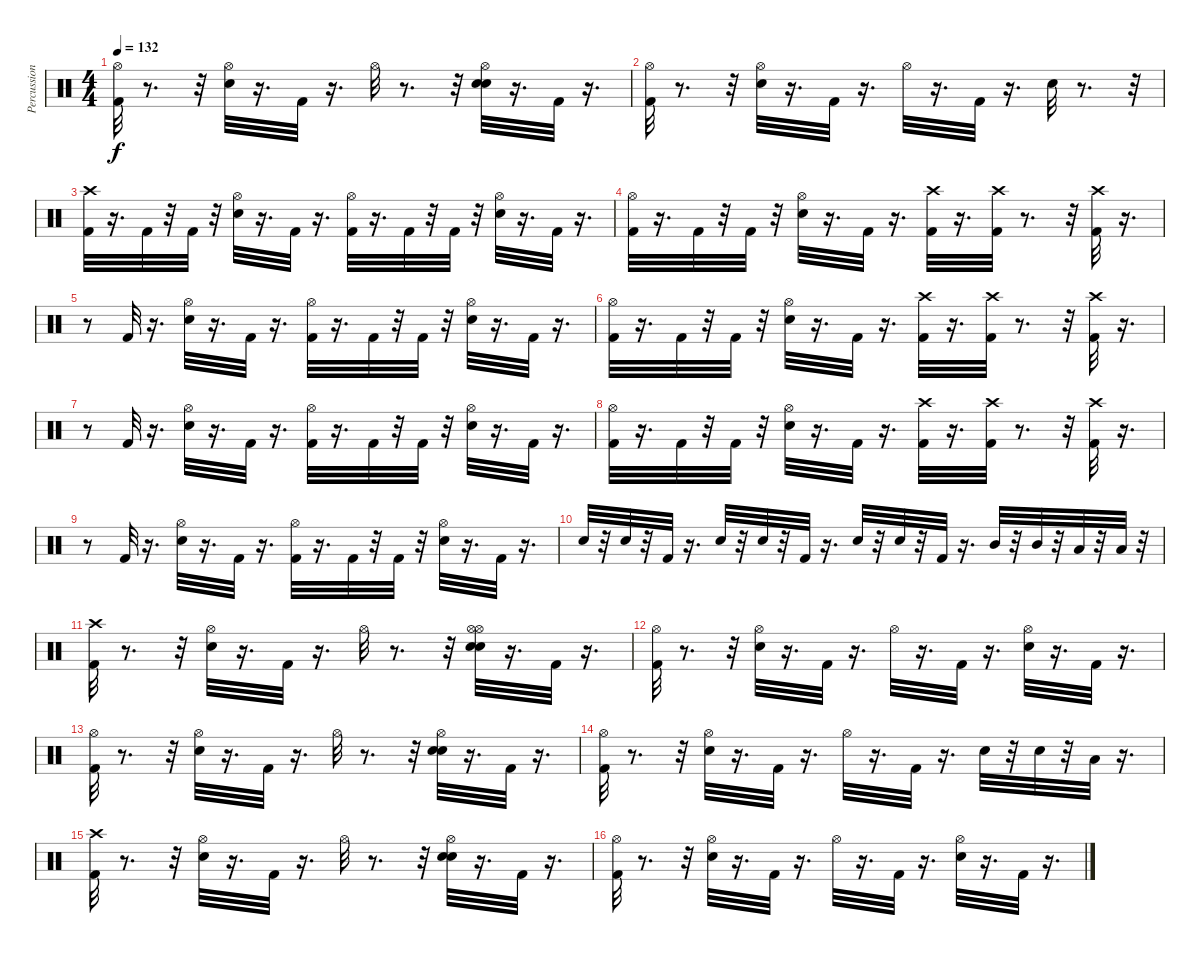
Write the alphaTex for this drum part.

\track ("Percussion" "Percussion") {instrument percussion}
\staff {score}
\articulation defaults
\ts (4 4)
\tempo 132
\clef neutral
\ks c
("Hi-Hat (open)" "Kick (hit) 2").32{dy f} r.8{d} r.32 ("Snare (hit) 2" "Hi-Hat (open)").32 r.16{d} "Kick (hit) 2".32 r.16{d} "Hi-Hat (open)".32 r.8{d} r.32 ("Snare (hit) 2" "Hi-Hat (open)" "Snare (hit) 2").32 r.16{d} "Kick (hit) 2".32 r.16{d} |
("Hi-Hat (open)" "Kick (hit) 2").32 r.8{d} r.32 ("Snare (hit) 2" "Hi-Hat (open)").32 r.16{d} "Kick (hit) 2".32 r.16{d} "Hi-Hat (open)".32 r.16{d} "Kick (hit) 2".32 r.16{d} "Snare (hit) 2".32 r.8{d} r.32 |
("Kick (hit) 2" "Crash high (hit)").32 r.16{d} "Kick (hit) 2".32 r.32 "Kick (hit) 2".32 r.32 ("Snare (hit) 2" "Hi-Hat (open)").32 r.16{d} "Kick (hit) 2".32 r.16{d} ("Kick (hit) 2" "Hi-Hat (open)").32 r.16{d} "Kick (hit) 2".32 r.32 "Kick (hit) 2".32 r.32 ("Snare (hit) 2" "Hi-Hat (open)").32 r.16{d} "Kick (hit) 2".32 r.16{d} |
("Kick (hit) 2" "Hi-Hat (open)").32 r.16{d} "Kick (hit) 2".32 r.32 "Kick (hit) 2".32 r.32 ("Snare (hit) 2" "Hi-Hat (open)").32 r.16{d} "Kick (hit) 2".32 r.16{d} ("Crash high (hit)" "Kick (hit) 2").32 r.16{d} ("Crash high (hit)" "Kick (hit) 2").32 r.8{d} r.32 ("Kick (hit) 2" "Crash high (hit)").32 r.16{d} |
r.8 "Kick (hit) 2".32 r.16{d} ("Snare (hit) 2" "Hi-Hat (open)").32 r.16{d} "Kick (hit) 2".32 r.16{d} ("Kick (hit) 2" "Hi-Hat (open)").32 r.16{d} "Kick (hit) 2".32 r.32 "Kick (hit) 2".32 r.32 ("Snare (hit) 2" "Hi-Hat (open)").32 r.16{d} "Kick (hit) 2".32 r.16{d} |
("Kick (hit) 2" "Hi-Hat (open)").32 r.16{d} "Kick (hit) 2".32 r.32 "Kick (hit) 2".32 r.32 ("Hi-Hat (open)" "Snare (hit) 2").32 r.16{d} "Kick (hit) 2".32 r.16{d} ("Crash high (hit)" "Kick (hit) 2").32 r.16{d} ("Crash high (hit)" "Kick (hit) 2").32 r.8{d} r.32 ("Kick (hit) 2" "Crash high (hit)").32 r.16{d} |
r.8 "Kick (hit) 2".32 r.16{d} ("Snare (hit) 2" "Hi-Hat (open)").32 r.16{d} "Kick (hit) 2".32 r.16{d} ("Kick (hit) 2" "Hi-Hat (open)").32 r.16{d} "Kick (hit) 2".32 r.32 "Kick (hit) 2".32 r.32 ("Snare (hit) 2" "Hi-Hat (open)").32 r.16{d} "Kick (hit) 2".32 r.16{d} |
("Kick (hit) 2" "Hi-Hat (open)").32 r.16{d} "Kick (hit) 2".32 r.32 "Kick (hit) 2".32 r.32 ("Snare (hit) 2" "Hi-Hat (open)").32 r.16{d} "Kick (hit) 2".32 r.16{d} ("Crash high (hit)" "Kick (hit) 2").32 r.16{d} ("Crash high (hit)" "Kick (hit) 2").32 r.8{d} r.32 ("Kick (hit) 2" "Crash high (hit)").32 r.16{d} |
r.8 "Kick (hit) 2".32 r.16{d} ("Snare (hit) 2" "Hi-Hat (open)").32 r.16{d} "Kick (hit) 2".32 r.16{d} ("Kick (hit) 2" "Hi-Hat (open)").32 r.16{d} "Kick (hit) 2".32 r.32 "Kick (hit) 2".32 r.32 ("Snare (hit) 2" "Hi-Hat (open)").32 r.16{d} "Kick (hit) 2".32 r.16{d} |
"Snare (hit) 2".32 r.32 "Snare (hit) 2".32 r.32 "Kick (hit) 2".32 r.16{d} "Snare (hit) 2".32 r.32 "Snare (hit) 2".32 r.32 "Kick (hit) 2".32 r.16{d} "Snare (hit) 2".32 r.32 "Snare (hit) 2".32 r.32 "Kick (hit) 2".32 r.16{d} "Mid Tom (hit)".32 r.32 "Mid Tom (hit)".32 r.32 "Low Tom (hit)".32 r.32 "Low Tom (hit)".32 r.32 |
("Kick (hit) 2" "Crash high (hit)").32 r.8{d} r.32 ("Snare (hit) 2" "Hi-Hat (open)").32 r.16{d} "Kick (hit) 2".32 r.16{d} "Hi-Hat (open)".32 r.8{d} r.32 ("Snare (hit) 2" "Hi-Hat (open)" "Snare (hit) 2" "Hi-Hat (open)").32 r.16{d} "Kick (hit) 2".32 r.16{d} |
("Kick (hit) 2" "Hi-Hat (open)").32 r.8{d} r.32 ("Snare (hit) 2" "Hi-Hat (open)").32 r.16{d} "Kick (hit) 2".32 r.16{d} "Hi-Hat (open)".32 r.16{d} "Kick (hit) 2".32 r.16{d} ("Snare (hit) 2" "Hi-Hat (open)").32 r.16{d} "Kick (hit) 2".32 r.16{d} |
("Hi-Hat (open)" "Kick (hit) 2").32 r.8{d} r.32 ("Snare (hit) 2" "Hi-Hat (open)").32 r.16{d} "Kick (hit) 2".32 r.16{d} "Hi-Hat (open)".32 r.8{d} r.32 ("Snare (hit) 2" "Hi-Hat (open)" "Snare (hit) 2").32 r.16{d} "Kick (hit) 2".32 r.16{d} |
("Kick (hit) 2" "Hi-Hat (open)").32 r.8{d} r.32 ("Snare (hit) 2" "Hi-Hat (open)").32 r.16{d} "Kick (hit) 2".32 r.16{d} "Hi-Hat (open)".32 r.16{d} "Kick (hit) 2".32 r.16{d} "Snare (hit) 2".32 r.32 "Snare (hit) 2".32 r.32 "Low Floor Tom (hit)".32 r.16{d} |
("Kick (hit) 2" "Crash high (hit)").32 r.8{d} r.32 ("Snare (hit) 2" "Hi-Hat (open)").32 r.16{d} "Kick (hit) 2".32 r.16{d} "Hi-Hat (open)".32 r.8{d} r.32 ("Snare (hit) 2" "Snare (hit) 2" "Hi-Hat (open)").32 r.16{d} "Kick (hit) 2".32 r.16{d} |
("Kick (hit) 2" "Hi-Hat (open)").32 r.8{d} r.32 ("Snare (hit) 2" "Hi-Hat (open)").32 r.16{d} "Kick (hit) 2".32 r.16{d} "Hi-Hat (open)".32 r.16{d} "Kick (hit) 2".32 r.16{d} ("Hi-Hat (open)" "Snare (hit) 2").32 r.16{d} "Kick (hit) 2".32 r.16{d}
